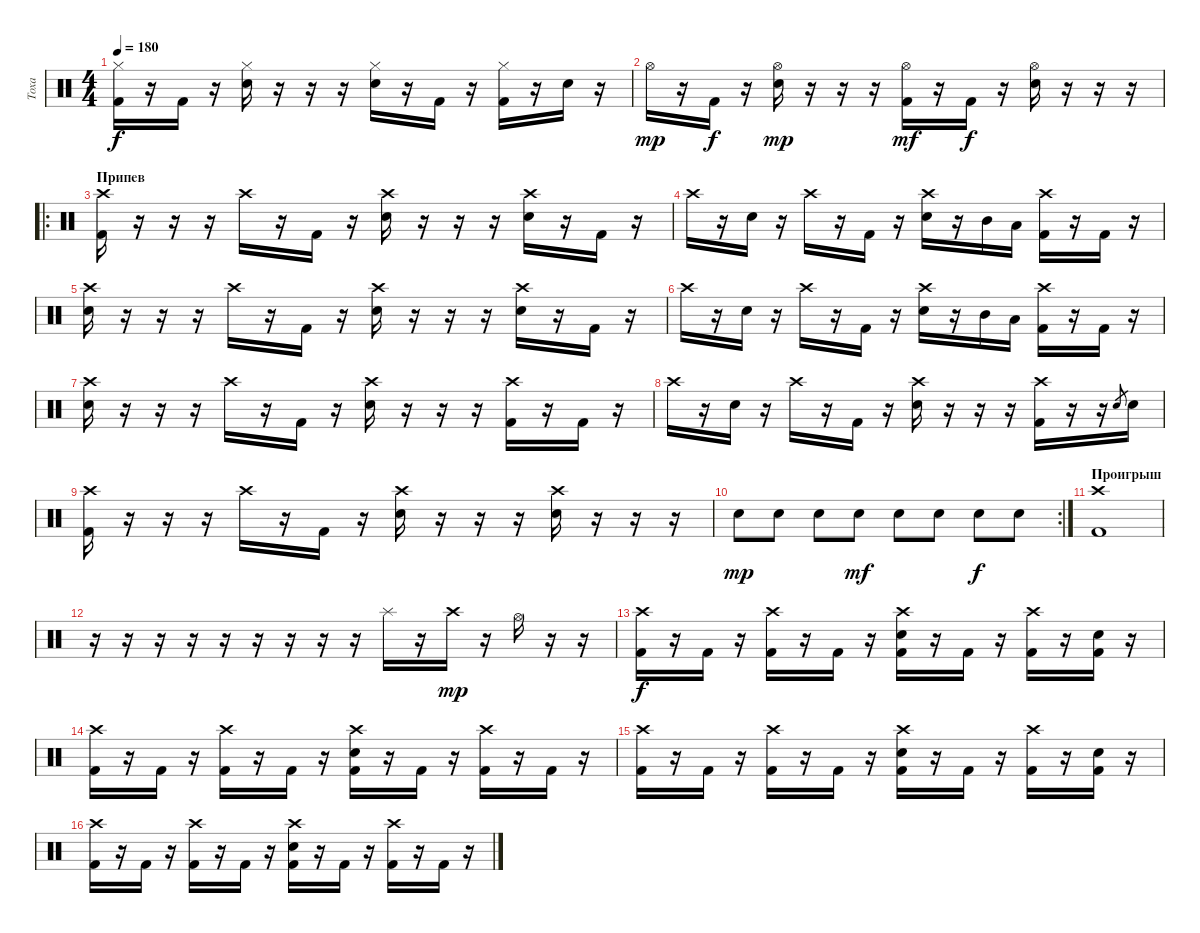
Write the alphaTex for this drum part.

\track ("Тоха" "Тоха") {instrument percussion}
\staff {score}
\articulation defaults
\ts (4 4)
\tempo 180
\clef neutral
\ks c
("Hi-Hat (closed)" "Kick (hit) 2").16{dy f} r.16 "Kick (hit) 2".16 r.16 ("Hi-Hat (closed)" "Electric Snare (hit)").16 r.16 r.16 r.16 ("Hi-Hat (closed)" "Electric Snare (hit)").16 r.16 "Kick (hit) 2".16 r.16 ("Hi-Hat (closed)" "Kick (hit) 2").16 r.16 "Electric Snare (hit)".16 r.16 |
"Hi-Hat (open)".16{dy mp} r.16 "Kick (hit) 2".16{dy f} r.16 ("Hi-Hat (open)" "Electric Snare (hit)").16{dy mp} r.16 r.16 r.16 ("Hi-Hat (open)" "Kick (hit) 2").16{dy mf} r.16 "Kick (hit) 2".16{dy f} r.16 ("Hi-Hat (open)" "Electric Snare (hit)").16 r.16 r.16 r.16 |
\ro
\section ("" "Припев")
("Crash high (hit)" "Kick (hit) 2").16 r.16 r.16 r.16 "Crash high (hit)".16 r.16 "Kick (hit) 2".16 r.16 ("Crash high (hit)" "Electric Snare (hit)").16 r.16 r.16 r.16 ("Crash high (hit)" "Electric Snare (hit)").16 r.16 "Kick (hit) 2".16 r.16 |
"Crash high (hit)".16 r.16 "Electric Snare (hit)".16 r.16 "Crash high (hit)".16 r.16 "Kick (hit) 2".16 r.16 ("Crash high (hit)" "Electric Snare (hit)").16 r.16 "Mid Tom (hit)".16 "Low Tom (hit)".16 ("Crash high (hit)" "Kick (hit) 2").16 r.16 "Kick (hit) 2".16 r.16 |
("Crash high (hit)" "Electric Snare (hit)").16 r.16 r.16 r.16 "Crash high (hit)".16 r.16 "Kick (hit) 2".16 r.16 ("Crash high (hit)" "Electric Snare (hit)").16 r.16 r.16 r.16 ("Crash high (hit)" "Electric Snare (hit)").16 r.16 "Kick (hit) 2".16 r.16 |
"Crash high (hit)".16 r.16 "Electric Snare (hit)".16 r.16 "Crash high (hit)".16 r.16 "Kick (hit) 2".16 r.16 ("Crash high (hit)" "Electric Snare (hit)").16 r.16 "Mid Tom (hit)".16 "Low Tom (hit)".16 ("Crash high (hit)" "Kick (hit) 2").16 r.16 "Kick (hit) 2".16 r.16 |
("Crash high (hit)" "Electric Snare (hit)").16 r.16 r.16 r.16 "Crash high (hit)".16 r.16 "Kick (hit) 2".16 r.16 ("Crash high (hit)" "Electric Snare (hit)").16 r.16 r.16 r.16 ("Crash high (hit)" "Kick (hit) 2").16 r.16 "Kick (hit) 2".16 r.16 |
"Crash high (hit)".16 r.16 "Electric Snare (hit)".16 r.16 "Crash high (hit)".16 r.16 "Kick (hit) 2".16 r.16 ("Crash high (hit)" "Electric Snare (hit)").16 r.16 r.16 r.16 ("Crash high (hit)" "Kick (hit) 2").16 r.16 r.16 "Electric Snare (hit)".8{gr} "Electric Snare (hit)".16 |
("Crash high (hit)" "Kick (hit) 2").16 r.16 r.16 r.16 "Crash high (hit)".16 r.16 "Kick (hit) 2".16 r.16 ("Crash high (hit)" "Electric Snare (hit)").16 r.16 r.16 r.16 ("Crash high (hit)" "Electric Snare (hit)").16 r.16 r.16 r.16 |
\rc 2 "Electric Snare (hit)".8{dy mp} "Electric Snare (hit)".8 "Electric Snare (hit)".8 "Electric Snare (hit)".8{dy mf} "Electric Snare (hit)".8 "Electric Snare (hit)".8 "Electric Snare (hit)".8{dy f} "Electric Snare (hit)".8
|
\section ("" "Проигрыш")
("Crash high (hit)" "Kick (hit) 2").1 |
r.16 r.16 r.16 r.16 r.16 r.16 r.16 r.16 r.16 "Splash (hit)".16 r.16 "Crash high (hit)".16{dy mp} r.16 "Hi-Hat (open)".16 r.16 r.16 |
("Crash high (hit)" "Kick (hit) 2").16{dy f} r.16 "Kick (hit) 2".16 r.16 ("Crash high (hit)" "Kick (hit) 2").16 r.16 "Kick (hit) 2".16 r.16 ("Crash high (hit)" "Electric Snare (hit)" "Kick (hit) 2").16 r.16 "Kick (hit) 2".16 r.16 ("Crash high (hit)" "Kick (hit) 2").16 r.16 ("Electric Snare (hit)" "Kick (hit) 2").16 r.16 |
("Crash high (hit)" "Kick (hit) 2").16 r.16 "Kick (hit) 2".16 r.16 ("Crash high (hit)" "Kick (hit) 2").16 r.16 "Kick (hit) 2".16 r.16 ("Crash high (hit)" "Electric Snare (hit)" "Kick (hit) 2").16 r.16 "Kick (hit) 2".16 r.16 ("Crash high (hit)" "Kick (hit) 2").16 r.16 "Kick (hit) 2".16 r.16 |
("Crash high (hit)" "Kick (hit) 2").16 r.16 "Kick (hit) 2".16 r.16 ("Crash high (hit)" "Kick (hit) 2").16 r.16 "Kick (hit) 2".16 r.16 ("Crash high (hit)" "Electric Snare (hit)" "Kick (hit) 2").16 r.16 "Kick (hit) 2".16 r.16 ("Crash high (hit)" "Kick (hit) 2").16 r.16 ("Electric Snare (hit)" "Kick (hit) 2").16 r.16 |
("Crash high (hit)" "Kick (hit) 2").16 r.16 "Kick (hit) 2".16 r.16 ("Crash high (hit)" "Kick (hit) 2").16 r.16 "Kick (hit) 2".16 r.16 ("Crash high (hit)" "Electric Snare (hit)" "Kick (hit) 2").16 r.16 "Kick (hit) 2".16 r.16 ("Crash high (hit)" "Kick (hit) 2").16 r.16 "Kick (hit) 2".16 r.16
